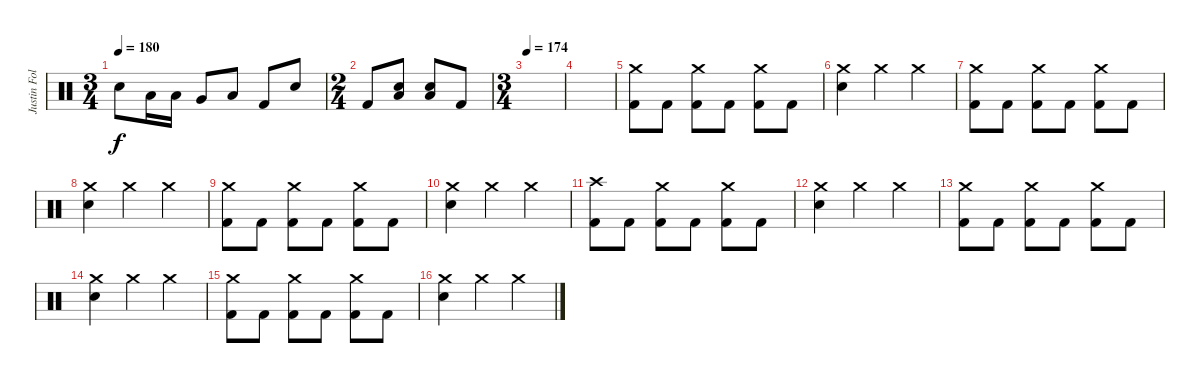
\track ("Justin Foley" "Justin Fol") {instrument percussion}
\staff {score}
\articulation defaults
\ts (3 4)
\tempo 180
\clef neutral
\ks c "Electric Snare (hit)".8{dy f} "Low Tom (hit)".16 "Low Tom (hit)".16 "Very Low Tom (hit)".8 "Low Floor Tom (hit)".8 "Kick (hit) 2".8 "Electric Snare (hit)".8
|
\ts (2 4)
"Kick (hit) 2".8 ("Electric Snare (hit)" "Low Floor Tom (hit)").8 ("Electric Snare (hit)" "Low Floor Tom (hit)").8 "Kick (hit) 2".8 |
\ts (3 4)
\tempo 174
|
|
("Crash medium (hit)" "Kick (hit) 2").8 "Kick (hit) 2".8 ("Crash medium (hit)" "Kick (hit) 2").8 "Kick (hit) 2".8 ("Crash medium (hit)" "Kick (hit) 2").8 "Kick (hit) 2".8 |
("Crash medium (hit)" "Electric Snare (hit)").4 "Crash medium (hit)".4 "Crash medium (hit)".4 |
("Crash medium (hit)" "Kick (hit) 2").8 "Kick (hit) 2".8 ("Crash medium (hit)" "Kick (hit) 2").8 "Kick (hit) 2".8 ("Crash medium (hit)" "Kick (hit) 2").8 "Kick (hit) 2".8 |
("Crash medium (hit)" "Electric Snare (hit)").4 "Crash medium (hit)".4 "Crash medium (hit)".4 |
("Crash medium (hit)" "Kick (hit) 2").8 "Kick (hit) 2".8 ("Crash medium (hit)" "Kick (hit) 2").8 "Kick (hit) 2".8 ("Crash medium (hit)" "Kick (hit) 2").8 "Kick (hit) 2".8 |
("Crash medium (hit)" "Electric Snare (hit)").4 "Crash medium (hit)".4 "Crash medium (hit)".4 |
("Crash high (hit)" "Kick (hit) 2").8 "Kick (hit) 2".8 ("Crash medium (hit)" "Kick (hit) 2").8 "Kick (hit) 2".8 ("Crash medium (hit)" "Kick (hit) 2").8 "Kick (hit) 2".8 |
("Crash medium (hit)" "Electric Snare (hit)").4 "Crash medium (hit)".4 "Crash medium (hit)".4 |
("Crash medium (hit)" "Kick (hit) 2").8 "Kick (hit) 2".8 ("Crash medium (hit)" "Kick (hit) 2").8 "Kick (hit) 2".8 ("Crash medium (hit)" "Kick (hit) 2").8 "Kick (hit) 2".8 |
("Crash medium (hit)" "Electric Snare (hit)").4 "Crash medium (hit)".4 "Crash medium (hit)".4 |
("Crash medium (hit)" "Kick (hit) 2").8 "Kick (hit) 2".8 ("Crash medium (hit)" "Kick (hit) 2").8 "Kick (hit) 2".8 ("Crash medium (hit)" "Kick (hit) 2").8 "Kick (hit) 2".8 |
("Crash medium (hit)" "Electric Snare (hit)").4 "Crash medium (hit)".4 "Crash medium (hit)".4
